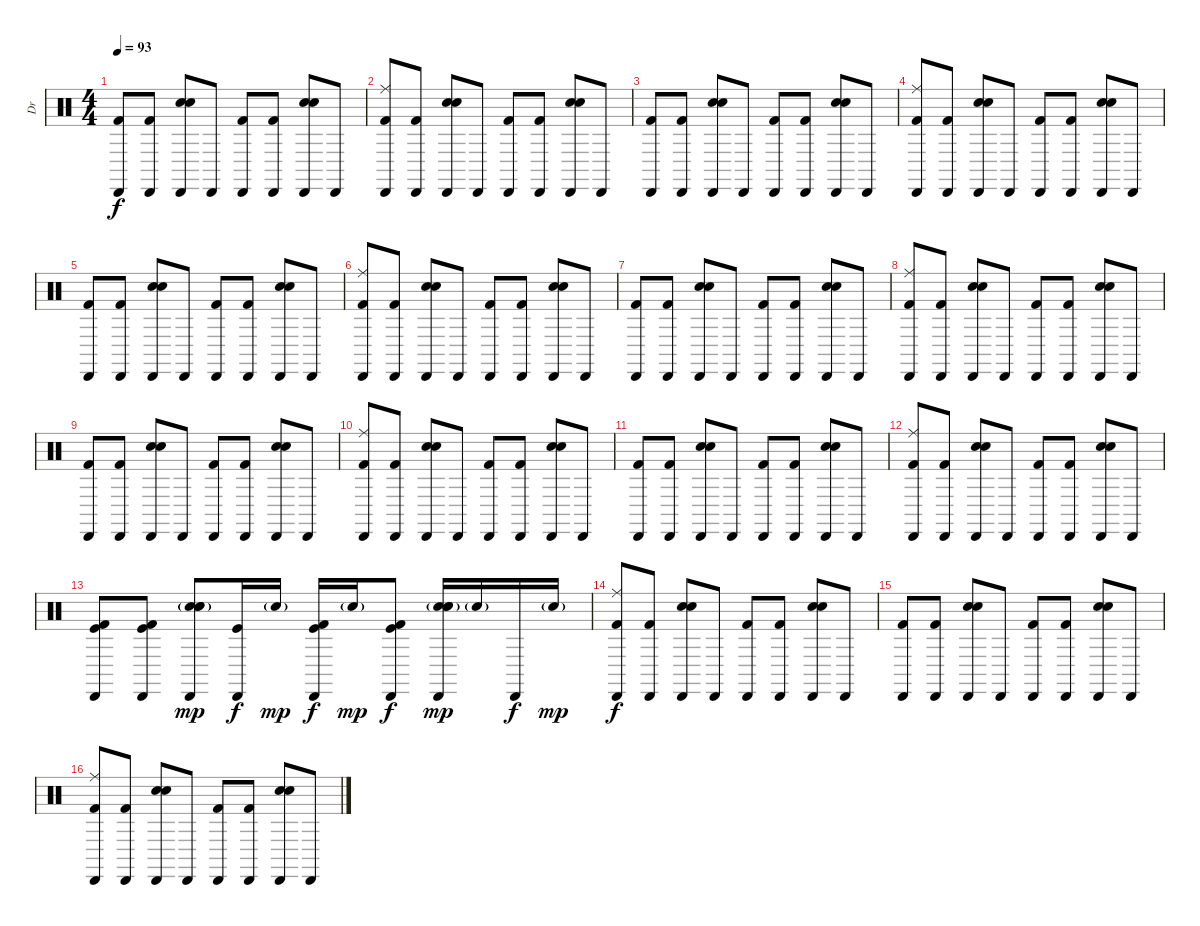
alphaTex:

\track ("Dr" "Dr") {instrument percussion}
\staff {score}
\articulation defaults
\ts (4 4)
\tempo 93
\clef neutral
\ks c
("Cabasa (hit)" "Kick (hit) 2").8{dy f} ("Cabasa (hit)" "Kick (hit) 2").8 ("Cabasa (hit)" "Electric Snare (hit)" "Hand Clap (hit)").8 "Cabasa (hit)".8 ("Cabasa (hit)" "Kick (hit) 2").8 ("Cabasa (hit)" "Kick (hit) 2").8 ("Cabasa (hit)" "Electric Snare (hit)" "Hand Clap (hit)").8 "Cabasa (hit)".8 |
("Ride (middle)" "Cabasa (hit)" "Kick (hit) 2").8 ("Cabasa (hit)" "Kick (hit) 2").8 ("Cabasa (hit)" "Electric Snare (hit)" "Hand Clap (hit)").8 "Cabasa (hit)".8 ("Cabasa (hit)" "Kick (hit) 2").8 ("Cabasa (hit)" "Kick (hit) 2").8 ("Cabasa (hit)" "Electric Snare (hit)" "Hand Clap (hit)").8 "Cabasa (hit)".8 |
("Cabasa (hit)" "Kick (hit) 2").8 ("Cabasa (hit)" "Kick (hit) 2").8 ("Cabasa (hit)" "Electric Snare (hit)" "Hand Clap (hit)").8 "Cabasa (hit)".8 ("Cabasa (hit)" "Kick (hit) 2").8 ("Cabasa (hit)" "Kick (hit) 2").8 ("Cabasa (hit)" "Electric Snare (hit)" "Hand Clap (hit)").8 "Cabasa (hit)".8 |
("Ride (middle)" "Cabasa (hit)" "Kick (hit) 2").8 ("Cabasa (hit)" "Kick (hit) 2").8 ("Cabasa (hit)" "Electric Snare (hit)" "Hand Clap (hit)").8 "Cabasa (hit)".8 ("Cabasa (hit)" "Kick (hit) 2").8 ("Cabasa (hit)" "Kick (hit) 2").8 ("Cabasa (hit)" "Electric Snare (hit)" "Hand Clap (hit)").8 "Cabasa (hit)".8 |
("Cabasa (hit)" "Kick (hit) 2").8 ("Cabasa (hit)" "Kick (hit) 2").8 ("Cabasa (hit)" "Electric Snare (hit)" "Hand Clap (hit)").8 "Cabasa (hit)".8 ("Cabasa (hit)" "Kick (hit) 2").8 ("Cabasa (hit)" "Kick (hit) 2").8 ("Cabasa (hit)" "Electric Snare (hit)" "Hand Clap (hit)").8 "Cabasa (hit)".8 |
("Ride (middle)" "Cabasa (hit)" "Kick (hit) 2").8 ("Cabasa (hit)" "Kick (hit) 2").8 ("Cabasa (hit)" "Electric Snare (hit)" "Hand Clap (hit)").8 "Cabasa (hit)".8 ("Cabasa (hit)" "Kick (hit) 2").8 ("Cabasa (hit)" "Kick (hit) 2").8 ("Cabasa (hit)" "Electric Snare (hit)" "Hand Clap (hit)").8 "Cabasa (hit)".8 |
("Cabasa (hit)" "Kick (hit) 2").8 ("Cabasa (hit)" "Kick (hit) 2").8 ("Cabasa (hit)" "Electric Snare (hit)" "Hand Clap (hit)").8 "Cabasa (hit)".8 ("Cabasa (hit)" "Kick (hit) 2").8 ("Cabasa (hit)" "Kick (hit) 2").8 ("Cabasa (hit)" "Electric Snare (hit)" "Hand Clap (hit)").8 "Cabasa (hit)".8 |
("Ride (middle)" "Cabasa (hit)" "Kick (hit) 2").8 ("Cabasa (hit)" "Kick (hit) 2").8 ("Cabasa (hit)" "Electric Snare (hit)" "Hand Clap (hit)").8 "Cabasa (hit)".8 ("Cabasa (hit)" "Kick (hit) 2").8 ("Cabasa (hit)" "Kick (hit) 2").8 ("Cabasa (hit)" "Electric Snare (hit)" "Hand Clap (hit)").8 "Cabasa (hit)".8 |
("Cabasa (hit)" "Kick (hit) 2").8 ("Cabasa (hit)" "Kick (hit) 2").8 ("Cabasa (hit)" "Electric Snare (hit)" "Hand Clap (hit)").8 "Cabasa (hit)".8 ("Cabasa (hit)" "Kick (hit) 2").8 ("Cabasa (hit)" "Kick (hit) 2").8 ("Cabasa (hit)" "Electric Snare (hit)" "Hand Clap (hit)").8 "Cabasa (hit)".8 |
("Ride (middle)" "Cabasa (hit)" "Kick (hit) 2").8 ("Cabasa (hit)" "Kick (hit) 2").8 ("Cabasa (hit)" "Electric Snare (hit)" "Hand Clap (hit)").8 "Cabasa (hit)".8 ("Cabasa (hit)" "Kick (hit) 2").8 ("Cabasa (hit)" "Kick (hit) 2").8 ("Cabasa (hit)" "Electric Snare (hit)" "Hand Clap (hit)").8 "Cabasa (hit)".8 |
("Cabasa (hit)" "Kick (hit) 2").8 ("Cabasa (hit)" "Kick (hit) 2").8 ("Cabasa (hit)" "Electric Snare (hit)" "Hand Clap (hit)").8 "Cabasa (hit)".8 ("Cabasa (hit)" "Kick (hit) 2").8 ("Cabasa (hit)" "Kick (hit) 2").8 ("Cabasa (hit)" "Electric Snare (hit)" "Hand Clap (hit)").8 "Cabasa (hit)".8 |
("Ride (middle)" "Cabasa (hit)" "Kick (hit) 2").8 ("Cabasa (hit)" "Kick (hit) 2").8 ("Cabasa (hit)" "Electric Snare (hit)" "Hand Clap (hit)").8 "Cabasa (hit)".8 ("Cabasa (hit)" "Kick (hit) 2").8 ("Cabasa (hit)" "Kick (hit) 2").8 ("Cabasa (hit)" "Electric Snare (hit)" "Hand Clap (hit)").8 "Cabasa (hit)".8 |
("Cabasa (hit)" "Kick (hit) 2" "Kick (hit)").8 ("Cabasa (hit)" "Kick (hit) 2" "Kick (hit)").8 ("Cabasa (hit)" "Electric Snare (hit)" "Hand Clap (hit)" "Electric Snare (hit)"{g}).8{dy mp} ("Cabasa (hit)" "Kick (hit)").16{dy f} "Electric Snare (hit)"{g}.16{dy mp} ("Cabasa (hit)" "Kick (hit) 2" "Kick (hit)").16{dy f} "Electric Snare (hit)"{g}.16{dy mp} ("Cabasa (hit)" "Kick (hit) 2" "Kick (hit)").8{dy f} ("Cabasa (hit)" "Electric Snare (hit)" "Hand Clap (hit)" "Electric Snare (hit)"{g}).16{dy mp} "Electric Snare (hit)"{g}.16 "Cabasa (hit)".16{dy f} "Electric Snare (hit)"{g}.16{dy mp} |
("Ride (middle)" "Cabasa (hit)" "Kick (hit) 2").8{dy f} ("Cabasa (hit)" "Kick (hit) 2").8 ("Cabasa (hit)" "Electric Snare (hit)" "Hand Clap (hit)").8 "Cabasa (hit)".8 ("Cabasa (hit)" "Kick (hit) 2").8 ("Cabasa (hit)" "Kick (hit) 2").8 ("Cabasa (hit)" "Electric Snare (hit)" "Hand Clap (hit)").8 "Cabasa (hit)".8 |
("Cabasa (hit)" "Kick (hit) 2").8 ("Cabasa (hit)" "Kick (hit) 2").8 ("Cabasa (hit)" "Electric Snare (hit)" "Hand Clap (hit)").8 "Cabasa (hit)".8 ("Cabasa (hit)" "Kick (hit) 2").8 ("Cabasa (hit)" "Kick (hit) 2").8 ("Cabasa (hit)" "Electric Snare (hit)" "Hand Clap (hit)").8 "Cabasa (hit)".8 |
("Ride (middle)" "Cabasa (hit)" "Kick (hit) 2").8 ("Cabasa (hit)" "Kick (hit) 2").8 ("Cabasa (hit)" "Electric Snare (hit)" "Hand Clap (hit)").8 "Cabasa (hit)".8 ("Cabasa (hit)" "Kick (hit) 2").8 ("Cabasa (hit)" "Kick (hit) 2").8 ("Cabasa (hit)" "Electric Snare (hit)" "Hand Clap (hit)").8 "Cabasa (hit)".8
